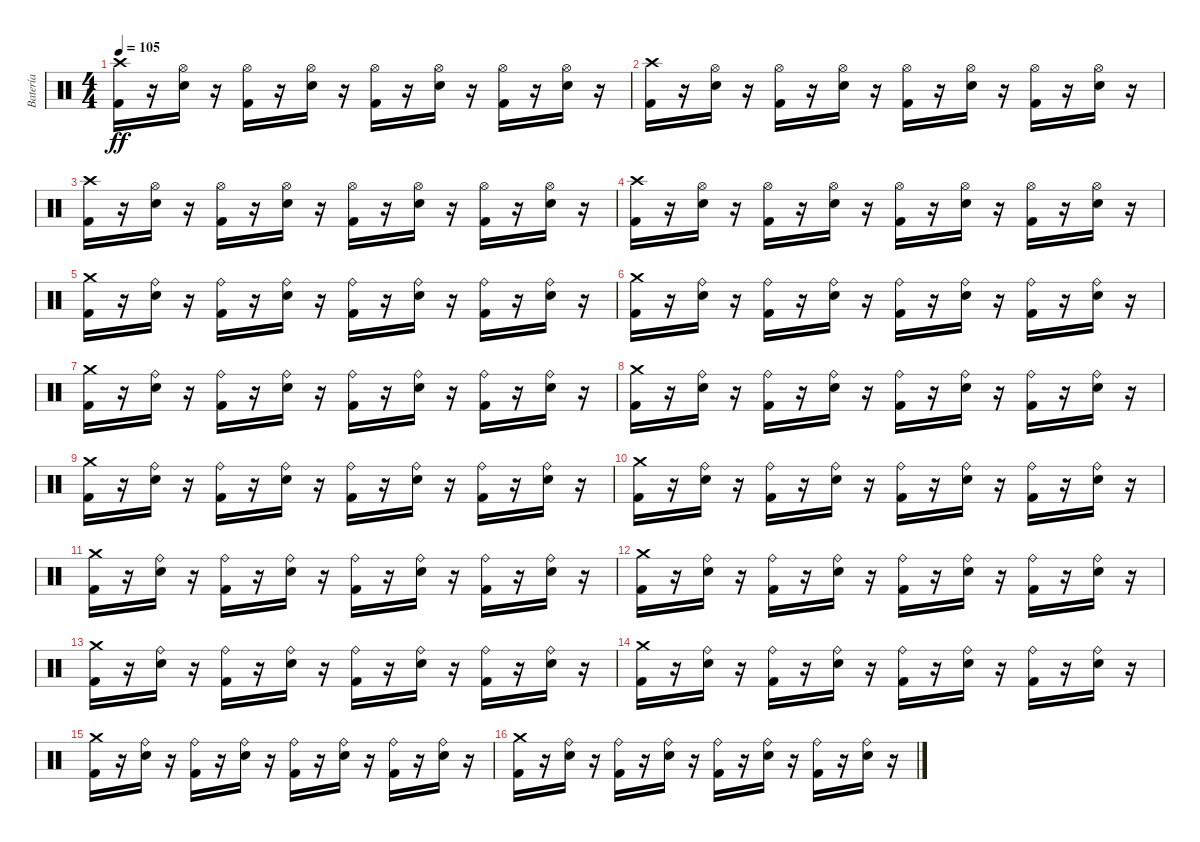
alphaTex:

\track ("Batería" "Batería") {instrument percussion}
\staff {score}
\articulation defaults
\ts (4 4)
\tempo 105
\clef neutral
\ks c
("Crash high (hit)" "Kick (hit) 2").16{dy ff} r.16 ("Hi-Hat (open)" "Electric Snare (hit)").16 r.16 ("Hi-Hat (open)" "Kick (hit) 2").16 r.16 ("Hi-Hat (open)" "Electric Snare (hit)").16 r.16 ("Hi-Hat (open)" "Kick (hit) 2").16 r.16 ("Hi-Hat (open)" "Electric Snare (hit)").16 r.16 ("Hi-Hat (open)" "Kick (hit) 2").16 r.16 ("Hi-Hat (open)" "Electric Snare (hit)").16 r.16 |
("Crash high (hit)" "Kick (hit) 2").16 r.16 ("Hi-Hat (open)" "Electric Snare (hit)").16 r.16 ("Hi-Hat (open)" "Kick (hit) 2").16 r.16 ("Hi-Hat (open)" "Electric Snare (hit)").16 r.16 ("Hi-Hat (open)" "Kick (hit) 2").16 r.16 ("Hi-Hat (open)" "Electric Snare (hit)").16 r.16 ("Hi-Hat (open)" "Kick (hit) 2").16 r.16 ("Hi-Hat (open)" "Electric Snare (hit)").16 r.16 |
("Crash high (hit)" "Kick (hit) 2").16 r.16 ("Hi-Hat (open)" "Electric Snare (hit)").16 r.16 ("Hi-Hat (open)" "Kick (hit) 2").16 r.16 ("Hi-Hat (open)" "Electric Snare (hit)").16 r.16 ("Hi-Hat (open)" "Kick (hit) 2").16 r.16 ("Hi-Hat (open)" "Electric Snare (hit)").16 r.16 ("Hi-Hat (open)" "Kick (hit) 2").16 r.16 ("Hi-Hat (open)" "Electric Snare (hit)").16 r.16 |
("Crash high (hit)" "Kick (hit) 2").16 r.16 ("Hi-Hat (open)" "Electric Snare (hit)").16 r.16 ("Hi-Hat (open)" "Kick (hit) 2").16 r.16 ("Hi-Hat (open)" "Electric Snare (hit)").16 r.16 ("Hi-Hat (open)" "Kick (hit) 2").16 r.16 ("Hi-Hat (open)" "Electric Snare (hit)").16 r.16 ("Hi-Hat (open)" "Kick (hit) 2").16 r.16 ("Hi-Hat (open)" "Electric Snare (hit)").16 r.16 |
("Crash medium (hit)" "Kick (hit) 2").16 r.16 ("Ride (bell)" "Electric Snare (hit)").16 r.16 ("Ride (bell)" "Kick (hit) 2").16 r.16 ("Ride (bell)" "Electric Snare (hit)").16 r.16 ("Ride (bell)" "Kick (hit) 2").16 r.16 ("Ride (bell)" "Electric Snare (hit)").16 r.16 ("Ride (bell)" "Kick (hit) 2").16 r.16 ("Ride (bell)" "Electric Snare (hit)").16 r.16 |
("Crash medium (hit)" "Kick (hit) 2").16 r.16 ("Ride (bell)" "Electric Snare (hit)").16 r.16 ("Ride (bell)" "Kick (hit) 2").16 r.16 ("Ride (bell)" "Electric Snare (hit)").16 r.16 ("Ride (bell)" "Kick (hit) 2").16 r.16 ("Ride (bell)" "Electric Snare (hit)").16 r.16 ("Ride (bell)" "Kick (hit) 2").16 r.16 ("Ride (bell)" "Electric Snare (hit)").16 r.16 |
("Crash medium (hit)" "Kick (hit) 2").16 r.16 ("Ride (bell)" "Electric Snare (hit)").16 r.16 ("Ride (bell)" "Kick (hit) 2").16 r.16 ("Ride (bell)" "Electric Snare (hit)").16 r.16 ("Ride (bell)" "Kick (hit) 2").16 r.16 ("Ride (bell)" "Electric Snare (hit)").16 r.16 ("Ride (bell)" "Kick (hit) 2").16 r.16 ("Ride (bell)" "Electric Snare (hit)").16 r.16 |
("Crash medium (hit)" "Kick (hit) 2").16 r.16 ("Ride (bell)" "Electric Snare (hit)").16 r.16 ("Ride (bell)" "Kick (hit) 2").16 r.16 ("Ride (bell)" "Electric Snare (hit)").16 r.16 ("Ride (bell)" "Kick (hit) 2").16 r.16 ("Ride (bell)" "Electric Snare (hit)").16 r.16 ("Ride (bell)" "Kick (hit) 2").16 r.16 ("Ride (bell)" "Electric Snare (hit)").16 r.16 |
("Crash medium (hit)" "Kick (hit) 2").16 r.16 ("Ride (bell)" "Electric Snare (hit)").16 r.16 ("Ride (bell)" "Kick (hit) 2").16 r.16 ("Ride (bell)" "Electric Snare (hit)").16 r.16 ("Ride (bell)" "Kick (hit) 2").16 r.16 ("Ride (bell)" "Electric Snare (hit)").16 r.16 ("Ride (bell)" "Kick (hit) 2").16 r.16 ("Ride (bell)" "Electric Snare (hit)").16 r.16 |
("Crash medium (hit)" "Kick (hit) 2").16 r.16 ("Ride (bell)" "Electric Snare (hit)").16 r.16 ("Ride (bell)" "Kick (hit) 2").16 r.16 ("Ride (bell)" "Electric Snare (hit)").16 r.16 ("Ride (bell)" "Kick (hit) 2").16 r.16 ("Ride (bell)" "Electric Snare (hit)").16 r.16 ("Ride (bell)" "Kick (hit) 2").16 r.16 ("Ride (bell)" "Electric Snare (hit)").16 r.16 |
("Crash medium (hit)" "Kick (hit) 2").16 r.16 ("Ride (bell)" "Electric Snare (hit)").16 r.16 ("Ride (bell)" "Kick (hit) 2").16 r.16 ("Ride (bell)" "Electric Snare (hit)").16 r.16 ("Ride (bell)" "Kick (hit) 2").16 r.16 ("Ride (bell)" "Electric Snare (hit)").16 r.16 ("Ride (bell)" "Kick (hit) 2").16 r.16 ("Ride (bell)" "Electric Snare (hit)").16 r.16 |
("Crash medium (hit)" "Kick (hit) 2").16 r.16 ("Ride (bell)" "Electric Snare (hit)").16 r.16 ("Ride (bell)" "Kick (hit) 2").16 r.16 ("Ride (bell)" "Electric Snare (hit)").16 r.16 ("Ride (bell)" "Kick (hit) 2").16 r.16 ("Ride (bell)" "Electric Snare (hit)").16 r.16 ("Ride (bell)" "Kick (hit) 2").16 r.16 ("Ride (bell)" "Electric Snare (hit)").16 r.16 |
("Crash medium (hit)" "Kick (hit) 2").16 r.16 ("Ride (bell)" "Electric Snare (hit)").16 r.16 ("Ride (bell)" "Kick (hit) 2").16 r.16 ("Ride (bell)" "Electric Snare (hit)").16 r.16 ("Ride (bell)" "Kick (hit) 2").16 r.16 ("Ride (bell)" "Electric Snare (hit)").16 r.16 ("Ride (bell)" "Kick (hit) 2").16 r.16 ("Ride (bell)" "Electric Snare (hit)").16 r.16 |
("Crash medium (hit)" "Kick (hit) 2").16 r.16 ("Ride (bell)" "Electric Snare (hit)").16 r.16 ("Ride (bell)" "Kick (hit) 2").16 r.16 ("Ride (bell)" "Electric Snare (hit)").16 r.16 ("Ride (bell)" "Kick (hit) 2").16 r.16 ("Ride (bell)" "Electric Snare (hit)").16 r.16 ("Ride (bell)" "Kick (hit) 2").16 r.16 ("Ride (bell)" "Electric Snare (hit)").16 r.16 |
("Crash medium (hit)" "Kick (hit) 2").16 r.16 ("Ride (bell)" "Electric Snare (hit)").16 r.16 ("Ride (bell)" "Kick (hit) 2").16 r.16 ("Ride (bell)" "Electric Snare (hit)").16 r.16 ("Ride (bell)" "Kick (hit) 2").16 r.16 ("Ride (bell)" "Electric Snare (hit)").16 r.16 ("Ride (bell)" "Kick (hit) 2").16 r.16 ("Ride (bell)" "Electric Snare (hit)").16 r.16 |
("Crash medium (hit)" "Kick (hit) 2").16 r.16 ("Ride (bell)" "Electric Snare (hit)").16 r.16 ("Ride (bell)" "Kick (hit) 2").16 r.16 ("Ride (bell)" "Electric Snare (hit)").16 r.16 ("Ride (bell)" "Kick (hit) 2").16 r.16 ("Ride (bell)" "Electric Snare (hit)").16 r.16 ("Ride (bell)" "Kick (hit) 2").16 r.16 ("Ride (bell)" "Electric Snare (hit)").16 r.16
